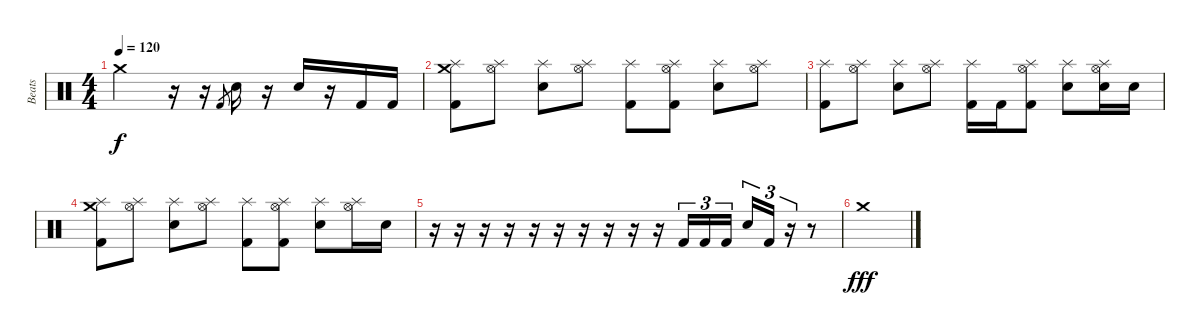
\track ("Beats" "Beats") {instrument percussion}
\staff {score}
\articulation defaults
\ts (4 4)
\tempo 120
\clef neutral
\ks c "Crash medium (hit)".2{dy f}
r.16 r.16 "Kick (hit) 2".8{gr} "Electric Snare (hit)".16 r.16 "Electric Snare (hit)".16 r.16 "Kick (hit) 2".16 "Kick (hit) 2".16 |
("Kick (hit) 2" "Crash medium (hit)" "Splash (hit)").8 ("Hi-Hat (open)" "Splash (hit)").8 ("Electric Snare (hit)" "Splash (hit)").8 ("Hi-Hat (open)" "Splash (hit)").8 ("Kick (hit) 2" "Splash (hit)").8 ("Kick (hit) 2" "Hi-Hat (open)" "Splash (hit)").8 ("Electric Snare (hit)" "Splash (hit)").8 ("Hi-Hat (open)" "Splash (hit)").8 |
("Kick (hit) 2" "Splash (hit)").8 ("Hi-Hat (open)" "Splash (hit)").8 ("Electric Snare (hit)" "Splash (hit)").8 ("Hi-Hat (open)" "Splash (hit)").8 ("Kick (hit) 2" "Splash (hit)").16 "Kick (hit) 2".16 ("Kick (hit) 2" "Hi-Hat (open)" "Splash (hit)").8 ("Electric Snare (hit)" "Splash (hit)").8 ("Electric Snare (hit)" "Hi-Hat (open)" "Splash (hit)").16 "Electric Snare (hit)".16 |
("Kick (hit) 2" "Crash medium (hit)" "Splash (hit)").8 ("Hi-Hat (open)" "Splash (hit)").8 ("Electric Snare (hit)" "Splash (hit)").8 ("Hi-Hat (open)" "Splash (hit)").8 ("Kick (hit) 2" "Splash (hit)").8 ("Kick (hit) 2" "Hi-Hat (open)" "Splash (hit)").8 ("Electric Snare (hit)" "Splash (hit)").8 ("Hi-Hat (open)" "Splash (hit)").16 "Electric Snare (hit)".16 |
r.16 r.16 r.16 r.16 r.16 r.16 r.16 r.16 r.16 r.16 "Kick (hit) 2".16{tu (3 2)} "Kick (hit) 2".16{tu (3 2)} "Kick (hit) 2".16{tu (3 2)} "Electric Snare (hit)".16{tu (3 2)} "Kick (hit) 2".16{tu (3 2)} r.16{tu (3 2)} r.8 |
"Crash medium (hit)".1{dy fff}
